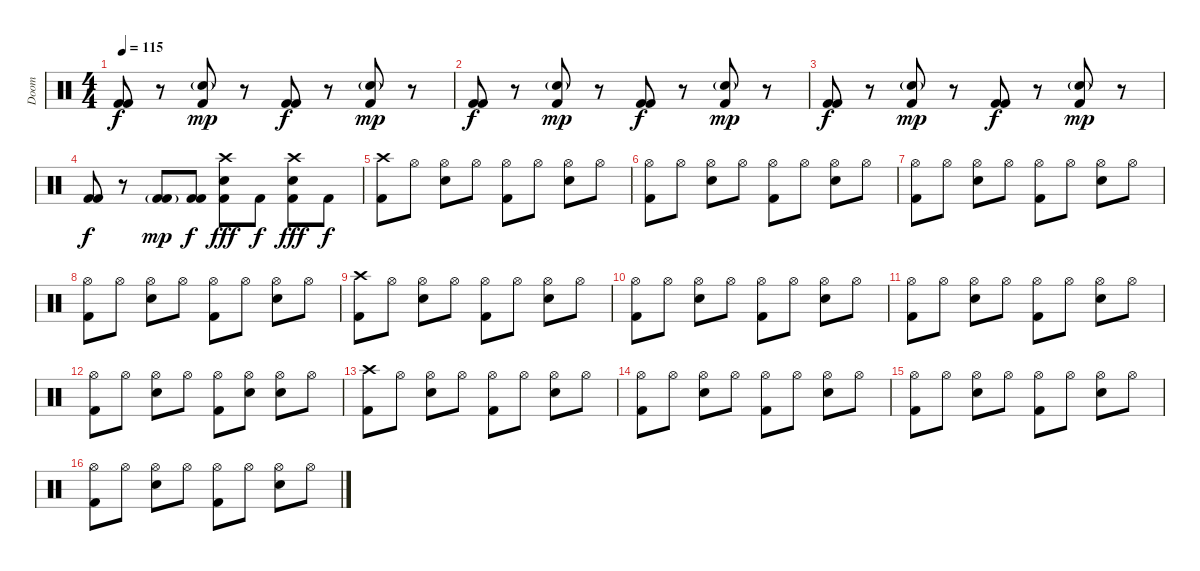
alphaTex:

\track ("Doom" "Doom") {instrument percussion}
\staff {score}
\articulation defaults
\ts (4 4)
\tempo 115
\clef neutral
\ks c
("Kick (hit) 2" "Kick (hit) 2").8{dy f} r.8 ("Electric Snare (hit)"{g} "Kick (hit) 2").8{dy mp} r.8 ("Kick (hit) 2" "Kick (hit) 2").8{dy f} r.8 ("Electric Snare (hit)"{g} "Kick (hit) 2").8{dy mp} r.8 |
("Kick (hit) 2" "Kick (hit) 2").8{dy f} r.8 ("Electric Snare (hit)"{g} "Kick (hit) 2").8{dy mp} r.8 ("Kick (hit) 2" "Kick (hit) 2").8{dy f} r.8 ("Electric Snare (hit)"{g} "Kick (hit) 2").8{dy mp} r.8 |
("Kick (hit) 2" "Kick (hit) 2").8{dy f} r.8 ("Electric Snare (hit)"{g} "Kick (hit) 2").8{dy mp} r.8 ("Kick (hit) 2" "Kick (hit) 2").8{dy f} r.8 ("Electric Snare (hit)"{g} "Kick (hit) 2").8{dy mp} r.8 |
("Kick (hit) 2" "Kick (hit) 2").8{dy f} r.8 ("Kick (hit) 2"{g} "Kick (hit) 2"{g}).8{dy mp} ("Kick (hit) 2" "Kick (hit) 2").8{dy f} ("Crash high (hit)" "Electric Snare (hit)" "Kick (hit) 2").8{dy fff} "Kick (hit) 2".8{dy f} ("Crash high (hit)" "Electric Snare (hit)" "Kick (hit) 2").8{dy fff} "Kick (hit) 2".8{dy f} |
("Crash high (hit)" "Kick (hit) 2").8 "Hi-Hat (open)".8 ("Hi-Hat (open)" "Electric Snare (hit)").8 "Hi-Hat (open)".8 ("Hi-Hat (open)" "Kick (hit) 2").8 "Hi-Hat (open)".8 ("Hi-Hat (open)" "Electric Snare (hit)").8 "Hi-Hat (open)".8 |
("Hi-Hat (open)" "Kick (hit) 2").8 "Hi-Hat (open)".8 ("Hi-Hat (open)" "Electric Snare (hit)").8 "Hi-Hat (open)".8 ("Hi-Hat (open)" "Kick (hit) 2").8 "Hi-Hat (open)".8 ("Hi-Hat (open)" "Electric Snare (hit)").8 "Hi-Hat (open)".8 |
("Hi-Hat (open)" "Kick (hit) 2").8 "Hi-Hat (open)".8 ("Hi-Hat (open)" "Electric Snare (hit)").8 "Hi-Hat (open)".8 ("Hi-Hat (open)" "Kick (hit) 2").8 "Hi-Hat (open)".8 ("Hi-Hat (open)" "Electric Snare (hit)").8 "Hi-Hat (open)".8 |
("Hi-Hat (open)" "Kick (hit) 2").8 "Hi-Hat (open)".8 ("Hi-Hat (open)" "Electric Snare (hit)").8 "Hi-Hat (open)".8 ("Hi-Hat (open)" "Kick (hit) 2").8 "Hi-Hat (open)".8 ("Hi-Hat (open)" "Electric Snare (hit)").8 "Hi-Hat (open)".8 |
("Crash high (hit)" "Kick (hit) 2").8 "Hi-Hat (open)".8 ("Hi-Hat (open)" "Electric Snare (hit)").8 "Hi-Hat (open)".8 ("Hi-Hat (open)" "Kick (hit) 2").8 "Hi-Hat (open)".8 ("Hi-Hat (open)" "Electric Snare (hit)").8 "Hi-Hat (open)".8 |
("Hi-Hat (open)" "Kick (hit) 2").8 "Hi-Hat (open)".8 ("Hi-Hat (open)" "Electric Snare (hit)").8 "Hi-Hat (open)".8 ("Hi-Hat (open)" "Kick (hit) 2").8 "Hi-Hat (open)".8 ("Hi-Hat (open)" "Electric Snare (hit)").8 "Hi-Hat (open)".8 |
("Hi-Hat (open)" "Kick (hit) 2").8 "Hi-Hat (open)".8 ("Hi-Hat (open)" "Electric Snare (hit)").8 "Hi-Hat (open)".8 ("Hi-Hat (open)" "Kick (hit) 2").8 "Hi-Hat (open)".8 ("Hi-Hat (open)" "Electric Snare (hit)").8 "Hi-Hat (open)".8 |
("Hi-Hat (open)" "Kick (hit) 2").8 "Hi-Hat (open)".8 ("Hi-Hat (open)" "Electric Snare (hit)").8 "Hi-Hat (open)".8 ("Hi-Hat (open)" "Kick (hit) 2").8 ("Hi-Hat (open)" "Electric Snare (hit)").8 ("Hi-Hat (open)" "Electric Snare (hit)").8 "Hi-Hat (open)".8 |
("Crash high (hit)" "Kick (hit) 2").8 "Hi-Hat (open)".8 ("Hi-Hat (open)" "Electric Snare (hit)").8 "Hi-Hat (open)".8 ("Hi-Hat (open)" "Kick (hit) 2").8 "Hi-Hat (open)".8 ("Hi-Hat (open)" "Electric Snare (hit)").8 "Hi-Hat (open)".8 |
("Hi-Hat (open)" "Kick (hit) 2").8 "Hi-Hat (open)".8 ("Hi-Hat (open)" "Electric Snare (hit)").8 "Hi-Hat (open)".8 ("Hi-Hat (open)" "Kick (hit) 2").8 "Hi-Hat (open)".8 ("Hi-Hat (open)" "Electric Snare (hit)").8 "Hi-Hat (open)".8 |
("Hi-Hat (open)" "Kick (hit) 2").8 "Hi-Hat (open)".8 ("Hi-Hat (open)" "Electric Snare (hit)").8 "Hi-Hat (open)".8 ("Hi-Hat (open)" "Kick (hit) 2").8 "Hi-Hat (open)".8 ("Hi-Hat (open)" "Electric Snare (hit)").8 "Hi-Hat (open)".8 |
("Hi-Hat (open)" "Kick (hit) 2").8 "Hi-Hat (open)".8 ("Hi-Hat (open)" "Electric Snare (hit)").8 "Hi-Hat (open)".8 ("Hi-Hat (open)" "Kick (hit) 2").8 "Hi-Hat (open)".8 ("Hi-Hat (open)" "Electric Snare (hit)").8 "Hi-Hat (open)".8
